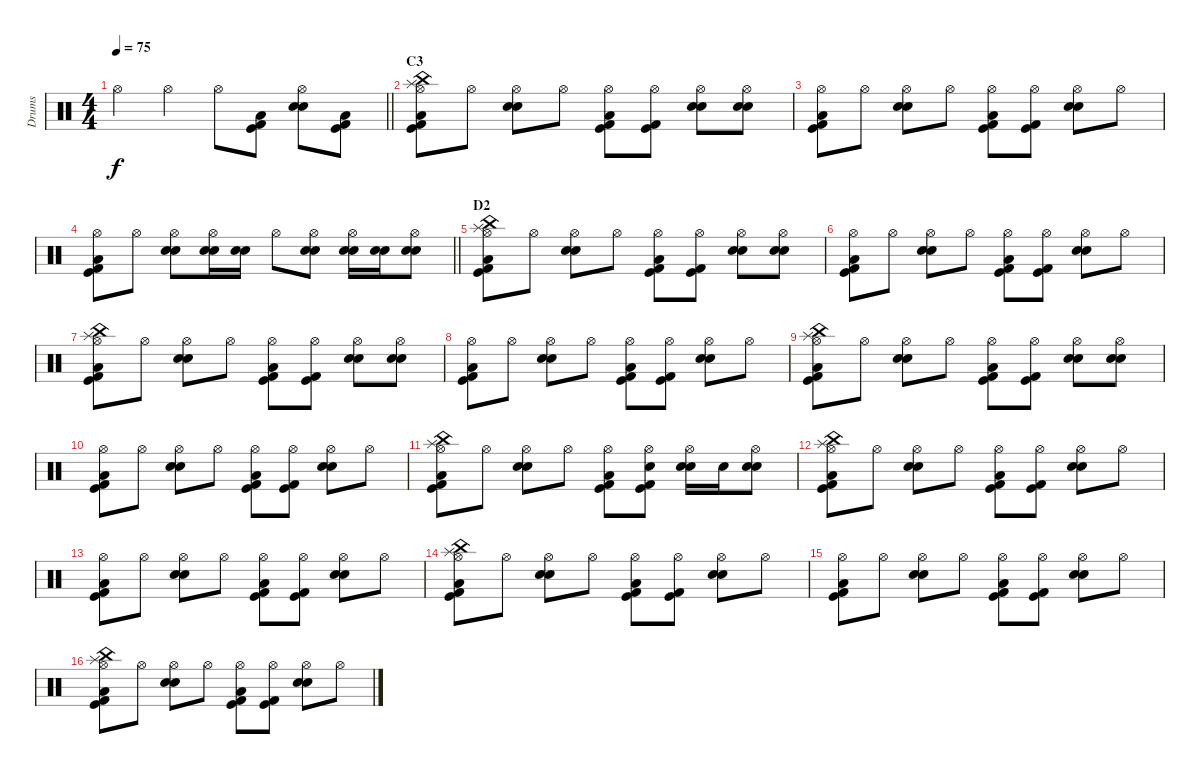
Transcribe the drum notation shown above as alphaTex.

\track ("Drums" "Drums") {instrument percussion}
\staff {score}
\articulation defaults
\ts (4 4)
\tempo 75
\clef neutral
\barLineRight lightlight
\ks c "Hi-Hat (open)".4{dy f} "Hi-Hat (open)".4 "Hi-Hat (open)".8
("Low Tom (hit)" "Kick (hit)" "Kick (hit) 2").8 ("Snare (hit) 2" "Electric Snare (hit)" "Hi-Hat (open)").8 ("Low Tom (hit)" "Kick (hit) 2" "Kick (hit)").8 |
\section ("" "C3")
("Splash (hit)" "China (hit)" "Low Floor Tom (hit)" "Hi-Hat (open)" "Kick (hit)" "Kick (hit) 2").8 "Hi-Hat (open)".8 ("Hi-Hat (open)" "Snare (hit) 2" "Electric Snare (hit)").8 "Hi-Hat (open)".8 ("Low Floor Tom (hit)" "Hi-Hat (open)" "Kick (hit)" "Kick (hit) 2").8 ("Hi-Hat (open)" "Kick (hit)" "Kick (hit) 2").8 ("Hi-Hat (open)" "Snare (hit) 2" "Electric Snare (hit)").8 ("Electric Snare (hit)" "Snare (hit) 2" "Hi-Hat (open)").8 |
("Low Floor Tom (hit)" "Hi-Hat (open)" "Kick (hit)" "Kick (hit) 2").8 "Hi-Hat (open)".8 ("Hi-Hat (open)" "Snare (hit) 2" "Electric Snare (hit)").8 "Hi-Hat (open)".8 ("Low Floor Tom (hit)" "Hi-Hat (open)" "Kick (hit)" "Kick (hit) 2").8 ("Hi-Hat (open)" "Kick (hit)" "Kick (hit) 2").8 ("Hi-Hat (open)" "Snare (hit) 2" "Electric Snare (hit)").8 "Hi-Hat (open)".8 |
\barLineRight lightlight
("Low Floor Tom (hit)" "Hi-Hat (open)" "Kick (hit)" "Kick (hit) 2").8 "Hi-Hat (open)".8 ("Hi-Hat (open)" "Snare (hit) 2" "Electric Snare (hit)").8 ("Snare (hit) 2" "Electric Snare (hit)" "Hi-Hat (open)").16 ("Snare (hit) 2" "Electric Snare (hit)").16 "Hi-Hat (open)".8 ("Snare (hit) 2" "Electric Snare (hit)" "Hi-Hat (open)").8 ("Electric Snare (hit)" "Snare (hit) 2" "Hi-Hat (open)").16 ("Electric Snare (hit)" "Snare (hit) 2").16 ("Electric Snare (hit)" "Snare (hit) 2" "Hi-Hat (open)").8 |
\section ("" "D2")
("Splash (hit)" "China (hit)" "Low Floor Tom (hit)" "Hi-Hat (open)" "Kick (hit)" "Kick (hit) 2").8 "Hi-Hat (open)".8 ("Hi-Hat (open)" "Snare (hit) 2" "Electric Snare (hit)").8 "Hi-Hat (open)".8 ("Low Floor Tom (hit)" "Hi-Hat (open)" "Kick (hit)" "Kick (hit) 2").8 ("Hi-Hat (open)" "Kick (hit)" "Kick (hit) 2").8 ("Hi-Hat (open)" "Snare (hit) 2" "Electric Snare (hit)").8 ("Electric Snare (hit)" "Snare (hit) 2" "Hi-Hat (open)").8 |
("Low Floor Tom (hit)" "Hi-Hat (open)" "Kick (hit)" "Kick (hit) 2").8 "Hi-Hat (open)".8 ("Hi-Hat (open)" "Snare (hit) 2" "Electric Snare (hit)").8 "Hi-Hat (open)".8 ("Low Floor Tom (hit)" "Hi-Hat (open)" "Kick (hit)" "Kick (hit) 2").8 ("Hi-Hat (open)" "Kick (hit)" "Kick (hit) 2").8 ("Hi-Hat (open)" "Snare (hit) 2" "Electric Snare (hit)").8 "Hi-Hat (open)".8 |
("Splash (hit)" "China (hit)" "Low Floor Tom (hit)" "Hi-Hat (open)" "Kick (hit)" "Kick (hit) 2").8 "Hi-Hat (open)".8 ("Hi-Hat (open)" "Snare (hit) 2" "Electric Snare (hit)").8 "Hi-Hat (open)".8 ("Low Floor Tom (hit)" "Hi-Hat (open)" "Kick (hit)" "Kick (hit) 2").8 ("Hi-Hat (open)" "Kick (hit)" "Kick (hit) 2").8 ("Hi-Hat (open)" "Snare (hit) 2" "Electric Snare (hit)").8 ("Electric Snare (hit)" "Snare (hit) 2" "Hi-Hat (open)").8 |
("Low Floor Tom (hit)" "Hi-Hat (open)" "Kick (hit)" "Kick (hit) 2").8 "Hi-Hat (open)".8 ("Hi-Hat (open)" "Snare (hit) 2" "Electric Snare (hit)").8 "Hi-Hat (open)".8 ("Low Floor Tom (hit)" "Hi-Hat (open)" "Kick (hit)" "Kick (hit) 2").8 ("Hi-Hat (open)" "Kick (hit)" "Kick (hit) 2").8 ("Hi-Hat (open)" "Snare (hit) 2" "Electric Snare (hit)").8 "Hi-Hat (open)".8 |
("Splash (hit)" "China (hit)" "Low Floor Tom (hit)" "Hi-Hat (open)" "Kick (hit)" "Kick (hit) 2").8 "Hi-Hat (open)".8 ("Hi-Hat (open)" "Snare (hit) 2" "Electric Snare (hit)").8 "Hi-Hat (open)".8 ("Low Floor Tom (hit)" "Hi-Hat (open)" "Kick (hit)" "Kick (hit) 2").8 ("Hi-Hat (open)" "Kick (hit)" "Kick (hit) 2").8 ("Hi-Hat (open)" "Snare (hit) 2" "Electric Snare (hit)").8 ("Electric Snare (hit)" "Snare (hit) 2" "Hi-Hat (open)").8 |
("Low Floor Tom (hit)" "Hi-Hat (open)" "Kick (hit)" "Kick (hit) 2").8 "Hi-Hat (open)".8 ("Hi-Hat (open)" "Snare (hit) 2" "Electric Snare (hit)").8 "Hi-Hat (open)".8 ("Low Floor Tom (hit)" "Hi-Hat (open)" "Kick (hit)" "Kick (hit) 2").8 ("Hi-Hat (open)" "Kick (hit)" "Kick (hit) 2").8 ("Hi-Hat (open)" "Snare (hit) 2" "Electric Snare (hit)").8 "Hi-Hat (open)".8 |
("Splash (hit)" "China (hit)" "Low Floor Tom (hit)" "Hi-Hat (open)" "Kick (hit)" "Kick (hit) 2").8 "Hi-Hat (open)".8 ("Hi-Hat (open)" "Snare (hit) 2" "Electric Snare (hit)").8 "Hi-Hat (open)".8 ("Low Floor Tom (hit)" "Hi-Hat (open)" "Kick (hit)" "Kick (hit) 2").8 ("Electric Snare (hit)" "Hi-Hat (open)" "Kick (hit)" "Kick (hit) 2").8 ("Hi-Hat (open)" "Snare (hit) 2" "Electric Snare (hit)").16 "Electric Snare (hit)".16 ("Electric Snare (hit)" "Snare (hit) 2" "Hi-Hat (open)").8 |
("China (hit)" "Splash (hit)" "Low Floor Tom (hit)" "Hi-Hat (open)" "Kick (hit)" "Kick (hit) 2").8 "Hi-Hat (open)".8 ("Hi-Hat (open)" "Snare (hit) 2" "Electric Snare (hit)").8 "Hi-Hat (open)".8 ("Low Floor Tom (hit)" "Hi-Hat (open)" "Kick (hit)" "Kick (hit) 2").8 ("Hi-Hat (open)" "Kick (hit)" "Kick (hit) 2").8 ("Hi-Hat (open)" "Snare (hit) 2" "Electric Snare (hit)").8 "Hi-Hat (open)".8 |
("Low Floor Tom (hit)" "Hi-Hat (open)" "Kick (hit)" "Kick (hit) 2").8 "Hi-Hat (open)".8 ("Hi-Hat (open)" "Snare (hit) 2" "Electric Snare (hit)").8 "Hi-Hat (open)".8 ("Low Floor Tom (hit)" "Hi-Hat (open)" "Kick (hit)" "Kick (hit) 2").8 ("Hi-Hat (open)" "Kick (hit)" "Kick (hit) 2").8 ("Hi-Hat (open)" "Snare (hit) 2" "Electric Snare (hit)").8 "Hi-Hat (open)".8 |
("China (hit)" "Splash (hit)" "Low Floor Tom (hit)" "Hi-Hat (open)" "Kick (hit)" "Kick (hit) 2").8 "Hi-Hat (open)".8 ("Hi-Hat (open)" "Snare (hit) 2" "Electric Snare (hit)").8 "Hi-Hat (open)".8 ("Low Floor Tom (hit)" "Hi-Hat (open)" "Kick (hit)" "Kick (hit) 2").8 ("Hi-Hat (open)" "Kick (hit)" "Kick (hit) 2").8 ("Hi-Hat (open)" "Snare (hit) 2" "Electric Snare (hit)").8 "Hi-Hat (open)".8 |
("Low Floor Tom (hit)" "Hi-Hat (open)" "Kick (hit)" "Kick (hit) 2").8 "Hi-Hat (open)".8 ("Hi-Hat (open)" "Snare (hit) 2" "Electric Snare (hit)").8 "Hi-Hat (open)".8 ("Low Floor Tom (hit)" "Hi-Hat (open)" "Kick (hit)" "Kick (hit) 2").8 ("Hi-Hat (open)" "Kick (hit)" "Kick (hit) 2").8 ("Hi-Hat (open)" "Snare (hit) 2" "Electric Snare (hit)").8 "Hi-Hat (open)".8 |
("China (hit)" "Splash (hit)" "Low Floor Tom (hit)" "Hi-Hat (open)" "Kick (hit)" "Kick (hit) 2").8 "Hi-Hat (open)".8 ("Hi-Hat (open)" "Snare (hit) 2" "Electric Snare (hit)").8 "Hi-Hat (open)".8 ("Low Floor Tom (hit)" "Hi-Hat (open)" "Kick (hit)" "Kick (hit) 2").8 ("Hi-Hat (open)" "Kick (hit)" "Kick (hit) 2").8 ("Hi-Hat (open)" "Snare (hit) 2" "Electric Snare (hit)").8 "Hi-Hat (open)".8
